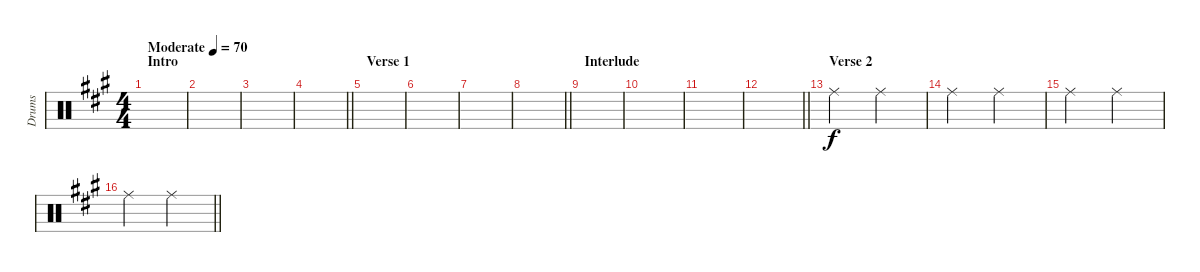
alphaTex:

\track ("Drums" "Drums") {instrument percussion}
\staff {score}
\articulation defaults
\ts (4 4)
\section ("" "Intro")
\tempo (70 "Moderate")
\clef neutral
\ks a
|
|
|
\barLineRight lightlight
|
\section ("" "Verse 1")
|
|
|
\barLineRight lightlight
|
\section ("" "Interlude")
|
|
|
\barLineRight lightlight
|
\section ("" "Verse 2")
"Ride (middle)".2 "Ride (middle)".2 |
"Ride (middle)".2 "Ride (middle)".2 |
"Ride (middle)".2 "Ride (middle)".2 |
\barLineRight lightlight "Ride (middle)".2 "Ride (middle)".2
